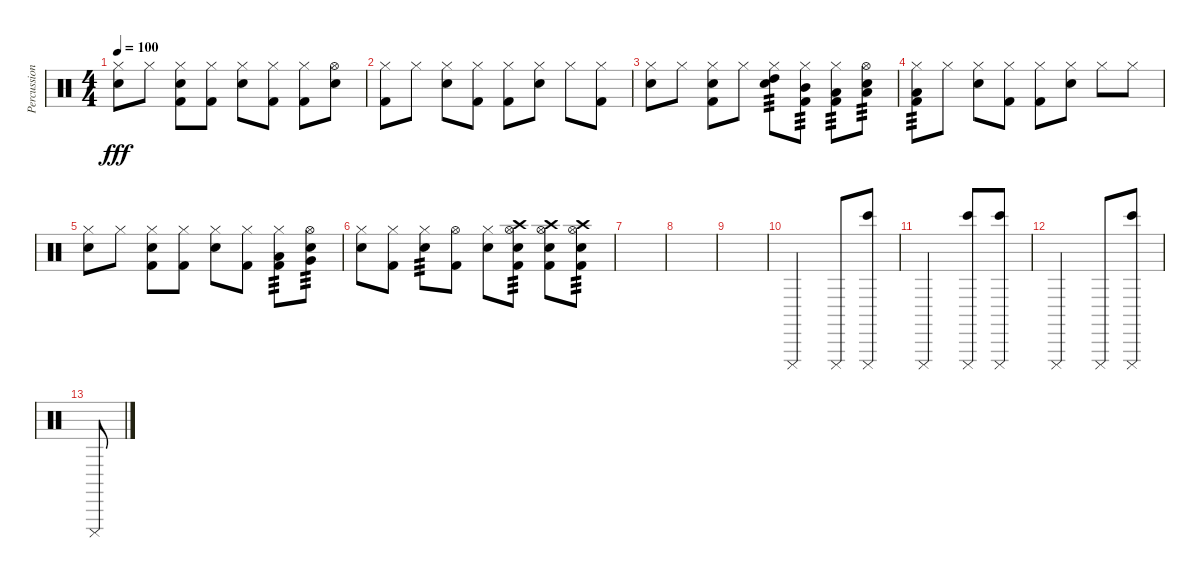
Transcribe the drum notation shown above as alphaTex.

\track ("Percussion" "Percussion") {instrument percussion}
\staff {score}
\articulation defaults
\ts (4 4)
\tempo 100
\clef neutral
\ks c
("Electric Snare (hit)" "Hi-Hat (closed)").8{dy fff} "Hi-Hat (closed)".8 ("Kick (hit) 2" "Electric Snare (hit)" "Hi-Hat (closed)").8 ("Kick (hit) 2" "Hi-Hat (closed)").8 ("Electric Snare (hit)" "Hi-Hat (closed)").8 ("Kick (hit) 2" "Hi-Hat (closed)").8 ("Kick (hit) 2" "Hi-Hat (closed)").8 ("Electric Snare (hit)" "Hi-Hat (open)").8 |
("Kick (hit) 2" "Hi-Hat (closed)").8 "Hi-Hat (closed)".8 ("Electric Snare (hit)" "Hi-Hat (closed)").8 ("Kick (hit) 2" "Hi-Hat (closed)").8 ("Kick (hit) 2" "Hi-Hat (closed)").8 ("Electric Snare (hit)" "Hi-Hat (closed)").8 "Hi-Hat (closed)".8 ("Kick (hit) 2" "Hi-Hat (closed)").8 |
("Electric Snare (hit)" "Hi-Hat (closed)").8 "Hi-Hat (closed)".8 ("Kick (hit) 2" "Electric Snare (hit)" "Hi-Hat (closed)").8 "Hi-Hat (closed)".8 ("High Tom (hit)" "Electric Snare (hit)" "Hi-Hat (closed)").8{tp 3} ("Mid Tom (hit)" "Kick (hit) 2" "Hi-Hat (closed)").8{tp 3} ("Low Tom (hit)" "Kick (hit) 2" "Hi-Hat (closed)").8{tp 3} ("Low Tom (hit)" "Electric Snare (hit)" "Hi-Hat (open)").8{tp 3} |
("Low Floor Tom (hit)" "Kick (hit) 2" "Hi-Hat (closed)").8{tp 3} "Hi-Hat (closed)".8 ("Electric Snare (hit)" "Hi-Hat (closed)").8 ("Kick (hit) 2" "Hi-Hat (closed)").8 ("Kick (hit) 2" "Hi-Hat (closed)").8 ("Electric Snare (hit)" "Hi-Hat (closed)").8 "Hi-Hat (closed)".8 "Hi-Hat (closed)".8 |
("Electric Snare (hit)" "Hi-Hat (closed)").8 "Hi-Hat (closed)".8 ("Kick (hit) 2" "Electric Snare (hit)" "Hi-Hat (closed)").8 ("Kick (hit) 2" "Hi-Hat (closed)").8 ("Electric Snare (hit)" "Hi-Hat (closed)").8 ("Kick (hit) 2" "Hi-Hat (closed)").8 ("Low Tom (hit)" "Kick (hit) 2" "Hi-Hat (closed)").8{tp 3} ("Very Low Tom (hit)" "Electric Snare (hit)" "Hi-Hat (open)").8{tp 3} |
("Electric Snare (hit)" "Hi-Hat (closed)").8 ("Kick (hit) 2" "Hi-Hat (closed)").8 ("Electric Snare (hit)" "Hi-Hat (closed)").8{tp 3} ("Kick (hit) 2" "Hi-Hat (open)").8 ("Electric Snare (hit)" "Hi-Hat (closed)").8 ("Crash high (hit)" "Kick (hit) 2" "Electric Snare (hit)" "Hi-Hat (open)").8{tp 3} ("Crash high (hit)" "Kick (hit) 2" "Electric Snare (hit)" "Hi-Hat (open)").8 ("Crash high (hit)" "Kick (hit) 2" "Electric Snare (hit)" "Hi-Hat (open)").8{tp 3} |
|
|
|
"Cuica (mute)".2 "Cuica (mute)".8 ("Bongo High (hit)" "Cuica (mute)").8 |
"Cuica (mute)".2 ("Bongo High (hit)" "Cuica (mute)").8 ("Bongo High (hit)" "Cuica (mute)").8 |
"Cuica (mute)".2 "Cuica (mute)".8 ("Bongo High (hit)" "Cuica (mute)").8 |
"Cuica (mute)".8
